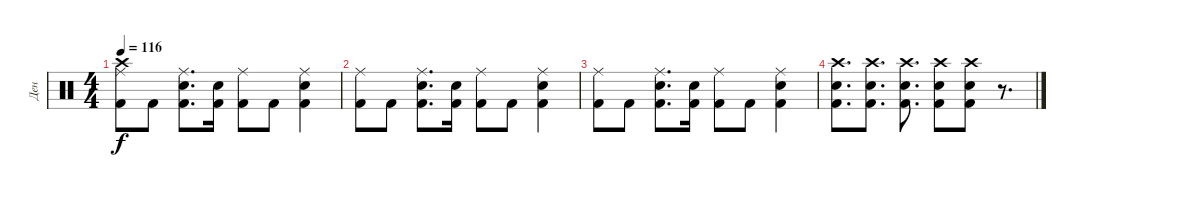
\track ("Ден" "Ден") {instrument percussion}
\staff {score}
\articulation defaults
\ts (4 4)
\tempo 116
\clef neutral
\ks c
("Crash high (hit)" "Ride (middle)" "Kick (hit) 2").8{dy f} "Kick (hit) 2".8 ("Ride (middle)" "Electric Snare (hit)" "Kick (hit) 2").8{d} ("Electric Snare (hit)" "Kick (hit) 2").16 ("Ride (middle)" "Kick (hit) 2").8 "Kick (hit) 2".8 ("Ride (middle)" "Electric Snare (hit)" "Kick (hit) 2").4 |
("Ride (middle)" "Kick (hit) 2").8 "Kick (hit) 2".8 ("Ride (middle)" "Electric Snare (hit)" "Kick (hit) 2").8{d} ("Electric Snare (hit)" "Kick (hit) 2").16 ("Ride (middle)" "Kick (hit) 2").8 "Kick (hit) 2".8 ("Ride (middle)" "Electric Snare (hit)" "Kick (hit) 2").4 |
("Ride (middle)" "Kick (hit) 2").8 "Kick (hit) 2".8 ("Ride (middle)" "Electric Snare (hit)" "Kick (hit) 2").8{d} ("Electric Snare (hit)" "Kick (hit) 2").16 ("Ride (middle)" "Kick (hit) 2").8 "Kick (hit) 2".8 ("Ride (middle)" "Electric Snare (hit)" "Kick (hit) 2").4 |
("Crash high (hit)" "Electric Snare (hit)" "Kick (hit) 2").8{d} ("Crash high (hit)" "Electric Snare (hit)" "Kick (hit) 2").8{d} ("Crash high (hit)" "Electric Snare (hit)" "Kick (hit) 2").8{d} ("Crash high (hit)" "Electric Snare (hit)" "Kick (hit) 2").8 ("Crash high (hit)" "Electric Snare (hit)" "Kick (hit) 2").8 r.8{d}
